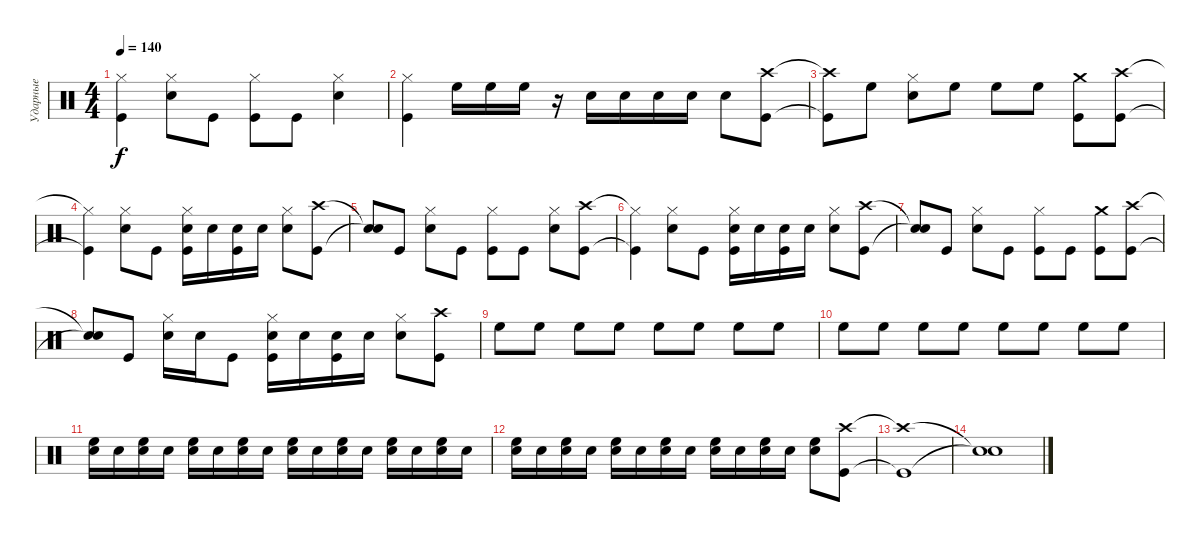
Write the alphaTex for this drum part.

\track ("Ударные" "Ударные") {instrument percussion}
\staff {score}
\articulation defaults
\ts (4 4)
\tempo 140
\clef neutral
\ks c
("Hi-Hat (closed)" "Kick (hit)").4{dy f} ("Hi-Hat (closed)" "Snare (hit) 2").8 "Kick (hit)".8 ("Hi-Hat (closed)" "Kick (hit)").8 "Kick (hit)".8 ("Hi-Hat (closed)" "Snare (hit) 2").4 |
("Hi-Hat (closed)" "Kick (hit)").4 "High Floor Tom (hit)".16 "High Floor Tom (hit)".16 "High Floor Tom (hit)".16 r.16 "Snare (hit) 2".16 "Snare (hit) 2".16 "Snare (hit) 2".16 "Snare (hit) 2".16 "Snare (hit) 2".8 ("Crash high (hit)" "Kick (hit)").8 |
("Crash high (hit)"{t} "Kick (hit)"{t}).8 "High Floor Tom (hit)".8 ("Hi-Hat (closed)" "Snare (hit) 2").8 "High Floor Tom (hit)".8 "High Floor Tom (hit)".8 "High Floor Tom (hit)".8 ("Crash medium (hit)" "Kick (hit)").8 ("Crash high (hit)" "Kick (hit)").8 |
("Hi-Hat (closed)"{t} "Kick (hit)"{t}).4 ("Hi-Hat (closed)" "Snare (hit) 2").8 "Kick (hit)".8 ("Hi-Hat (closed)" "Snare (hit) 2" "Kick (hit)").16 "Snare (hit) 2".16 ("Snare (hit) 2" "Kick (hit)").16 "Snare (hit) 2".16 ("Hi-Hat (closed)" "Snare (hit) 2").8 ("Crash high (hit)" "Kick (hit)").8 |
("Snare (hit)"{t} "Snare (hit)"{t}).8 "Kick (hit)".8 ("Hi-Hat (closed)" "Snare (hit) 2").8 "Kick (hit)".8 ("Hi-Hat (closed)" "Kick (hit)").8 "Kick (hit)".8 ("Hi-Hat (closed)" "Snare (hit) 2").8 ("Crash high (hit)" "Kick (hit)").8 |
("Hi-Hat (closed)"{t} "Kick (hit)"{t}).4 ("Hi-Hat (closed)" "Snare (hit) 2").8 "Kick (hit)".8 ("Hi-Hat (closed)" "Snare (hit) 2" "Kick (hit)").16 "Snare (hit) 2".16 ("Snare (hit) 2" "Kick (hit)").16 "Snare (hit) 2".16 ("Hi-Hat (closed)" "Snare (hit) 2").8 ("Crash high (hit)" "Kick (hit)").8 |
("Snare (hit)"{t} "Snare (hit)"{t}).8 "Kick (hit)".8 ("Hi-Hat (closed)" "Snare (hit) 2").8 "Kick (hit)".8 ("Hi-Hat (closed)" "Kick (hit)").8 "Kick (hit)".8 ("Crash medium (hit)" "Kick (hit)").8 ("Crash high (hit)" "Kick (hit)").8 |
("Snare (hit)"{t} "Snare (hit)"{t}).8 "Kick (hit)".8 ("Hi-Hat (closed)" "Snare (hit) 2").16 "Snare (hit) 2".16 "Kick (hit)".8 ("Hi-Hat (closed)" "Snare (hit) 2" "Kick (hit)").16 "Snare (hit) 2".16 ("Snare (hit) 2" "Kick (hit)").16 "Snare (hit) 2".16 ("Hi-Hat (closed)" "Snare (hit) 2").8 ("Crash high (hit)" "Kick (hit)").8 |
"High Floor Tom (hit)".8 "High Floor Tom (hit)".8 "High Floor Tom (hit)".8 "High Floor Tom (hit)".8 "High Floor Tom (hit)".8 "High Floor Tom (hit)".8 "High Floor Tom (hit)".8 "High Floor Tom (hit)".8 |
"High Floor Tom (hit)".8 "High Floor Tom (hit)".8 "High Floor Tom (hit)".8 "High Floor Tom (hit)".8 "High Floor Tom (hit)".8 "High Floor Tom (hit)".8 "High Floor Tom (hit)".8 "High Floor Tom (hit)".8 |
("High Floor Tom (hit)" "Snare (hit) 2").16 "Snare (hit) 2".16 ("High Floor Tom (hit)" "Snare (hit) 2").16 "Snare (hit) 2".16 ("High Floor Tom (hit)" "Snare (hit) 2").16 "Snare (hit) 2".16 ("High Floor Tom (hit)" "Snare (hit) 2").16 "Snare (hit) 2".16 ("High Floor Tom (hit)" "Snare (hit) 2").16 "Snare (hit) 2".16 ("High Floor Tom (hit)" "Snare (hit) 2").16 "Snare (hit) 2".16 ("High Floor Tom (hit)" "Snare (hit) 2").16 "Snare (hit) 2".16 ("High Floor Tom (hit)" "Snare (hit) 2").16 "Snare (hit) 2".16 |
("High Floor Tom (hit)" "Snare (hit) 2").16 "Snare (hit) 2".16 ("High Floor Tom (hit)" "Snare (hit) 2").16 "Snare (hit) 2".16 ("High Floor Tom (hit)" "Snare (hit) 2").16 "Snare (hit) 2".16 ("High Floor Tom (hit)" "Snare (hit) 2").16 "Snare (hit) 2".16 ("High Floor Tom (hit)" "Snare (hit) 2").16 "Snare (hit) 2".16 ("High Floor Tom (hit)" "Snare (hit) 2").16 "Snare (hit) 2".16 ("High Floor Tom (hit)" "Snare (hit) 2").8 ("Crash high (hit)" "Kick (hit)").8 |
("Crash high (hit)"{t} "Kick (hit)"{t}).1 |
("Snare (hit)"{t} "Snare (hit)"{t}).1
